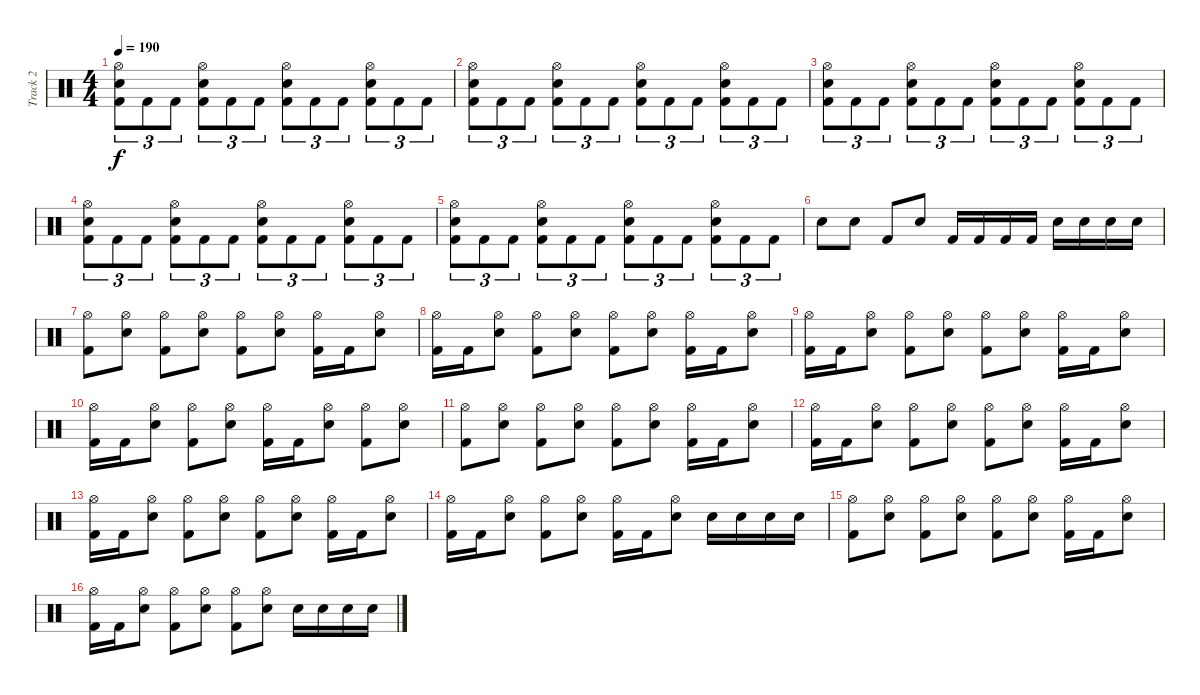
\track ("Track 2" "Track 2") {instrument percussion}
\staff {score}
\articulation defaults
\ts (4 4)
\tempo 190
\clef neutral
\ks c
("Hi-Hat (open)" "Snare (hit) 2" "Kick (hit) 2").8{tu (3 2) dy f} "Kick (hit) 2".8{tu (3 2)} "Kick (hit) 2".8{tu (3 2)} ("Hi-Hat (open)" "Snare (hit) 2" "Kick (hit) 2").8{tu (3 2)} "Kick (hit) 2".8{tu (3 2)} "Kick (hit) 2".8{tu (3 2)} ("Hi-Hat (open)" "Snare (hit) 2" "Kick (hit) 2").8{tu (3 2)} "Kick (hit) 2".8{tu (3 2)} "Kick (hit) 2".8{tu (3 2)} ("Hi-Hat (open)" "Snare (hit) 2" "Kick (hit) 2").8{tu (3 2)} "Kick (hit) 2".8{tu (3 2)} "Kick (hit) 2".8{tu (3 2)} |
("Hi-Hat (open)" "Snare (hit) 2" "Kick (hit) 2").8{tu (3 2)} "Kick (hit) 2".8{tu (3 2)} "Kick (hit) 2".8{tu (3 2)} ("Hi-Hat (open)" "Snare (hit) 2" "Kick (hit) 2").8{tu (3 2)} "Kick (hit) 2".8{tu (3 2)} "Kick (hit) 2".8{tu (3 2)} ("Hi-Hat (open)" "Snare (hit) 2" "Kick (hit) 2").8{tu (3 2)} "Kick (hit) 2".8{tu (3 2)} "Kick (hit) 2".8{tu (3 2)} ("Hi-Hat (open)" "Snare (hit) 2" "Kick (hit) 2").8{tu (3 2)} "Kick (hit) 2".8{tu (3 2)} "Kick (hit) 2".8{tu (3 2)} |
("Hi-Hat (open)" "Snare (hit) 2" "Kick (hit) 2").8{tu (3 2)} "Kick (hit) 2".8{tu (3 2)} "Kick (hit) 2".8{tu (3 2)} ("Hi-Hat (open)" "Snare (hit) 2" "Kick (hit) 2").8{tu (3 2)} "Kick (hit) 2".8{tu (3 2)} "Kick (hit) 2".8{tu (3 2)} ("Hi-Hat (open)" "Snare (hit) 2" "Kick (hit) 2").8{tu (3 2)} "Kick (hit) 2".8{tu (3 2)} "Kick (hit) 2".8{tu (3 2)} ("Hi-Hat (open)" "Snare (hit) 2" "Kick (hit) 2").8{tu (3 2)} "Kick (hit) 2".8{tu (3 2)} "Kick (hit) 2".8{tu (3 2)} |
("Hi-Hat (open)" "Snare (hit) 2" "Kick (hit) 2").8{tu (3 2)} "Kick (hit) 2".8{tu (3 2)} "Kick (hit) 2".8{tu (3 2)} ("Hi-Hat (open)" "Snare (hit) 2" "Kick (hit) 2").8{tu (3 2)} "Kick (hit) 2".8{tu (3 2)} "Kick (hit) 2".8{tu (3 2)} ("Hi-Hat (open)" "Snare (hit) 2" "Kick (hit) 2").8{tu (3 2)} "Kick (hit) 2".8{tu (3 2)} "Kick (hit) 2".8{tu (3 2)} ("Hi-Hat (open)" "Snare (hit) 2" "Kick (hit) 2").8{tu (3 2)} "Kick (hit) 2".8{tu (3 2)} "Kick (hit) 2".8{tu (3 2)} |
("Hi-Hat (open)" "Snare (hit) 2" "Kick (hit) 2").8{tu (3 2)} "Kick (hit) 2".8{tu (3 2)} "Kick (hit) 2".8{tu (3 2)} ("Hi-Hat (open)" "Snare (hit) 2" "Kick (hit) 2").8{tu (3 2)} "Kick (hit) 2".8{tu (3 2)} "Kick (hit) 2".8{tu (3 2)} ("Hi-Hat (open)" "Snare (hit) 2" "Kick (hit) 2").8{tu (3 2)} "Kick (hit) 2".8{tu (3 2)} "Kick (hit) 2".8{tu (3 2)} ("Hi-Hat (open)" "Snare (hit) 2" "Kick (hit) 2").8{tu (3 2)} "Kick (hit) 2".8{tu (3 2)} "Kick (hit) 2".8{tu (3 2)} |
"Snare (hit) 2".8 "Snare (hit) 2".8 "Kick (hit) 2".8 "Snare (hit) 2".8 "Kick (hit) 2".16 "Kick (hit) 2".16 "Kick (hit) 2".16 "Kick (hit) 2".16 "Snare (hit) 2".16 "Snare (hit) 2".16 "Snare (hit) 2".16 "Snare (hit) 2".16 |
("Hi-Hat (open)" "Kick (hit) 2").8 ("Hi-Hat (open)" "Snare (hit) 2").8 ("Hi-Hat (open)" "Kick (hit) 2").8 ("Hi-Hat (open)" "Snare (hit) 2").8 ("Hi-Hat (open)" "Kick (hit) 2").8 ("Hi-Hat (open)" "Snare (hit) 2").8 ("Hi-Hat (open)" "Kick (hit) 2").16 "Kick (hit) 2".16 ("Hi-Hat (open)" "Snare (hit) 2").8 |
("Hi-Hat (open)" "Kick (hit) 2").16 "Kick (hit) 2".16 ("Hi-Hat (open)" "Snare (hit) 2").8 ("Hi-Hat (open)" "Kick (hit) 2").8 ("Hi-Hat (open)" "Snare (hit) 2").8 ("Hi-Hat (open)" "Kick (hit) 2").8 ("Hi-Hat (open)" "Snare (hit) 2").8 ("Hi-Hat (open)" "Kick (hit) 2").16 "Kick (hit) 2".16 ("Hi-Hat (open)" "Snare (hit) 2").8 |
("Hi-Hat (open)" "Kick (hit) 2").16 "Kick (hit) 2".16 ("Hi-Hat (open)" "Snare (hit) 2").8 ("Hi-Hat (open)" "Kick (hit) 2").8 ("Hi-Hat (open)" "Snare (hit) 2").8 ("Hi-Hat (open)" "Kick (hit) 2").8 ("Hi-Hat (open)" "Snare (hit) 2").8 ("Hi-Hat (open)" "Kick (hit) 2").16 "Kick (hit) 2".16 ("Hi-Hat (open)" "Snare (hit) 2").8 |
("Hi-Hat (open)" "Kick (hit) 2").16 "Kick (hit) 2".16 ("Hi-Hat (open)" "Snare (hit) 2").8 ("Hi-Hat (open)" "Kick (hit) 2").8 ("Hi-Hat (open)" "Snare (hit) 2").8 ("Hi-Hat (open)" "Kick (hit) 2").16 "Kick (hit) 2".16 ("Hi-Hat (open)" "Snare (hit) 2").8 ("Hi-Hat (open)" "Kick (hit) 2").8 ("Hi-Hat (open)" "Snare (hit) 2").8 |
("Hi-Hat (open)" "Kick (hit) 2").8 ("Hi-Hat (open)" "Snare (hit) 2").8 ("Hi-Hat (open)" "Kick (hit) 2").8 ("Hi-Hat (open)" "Snare (hit) 2").8 ("Hi-Hat (open)" "Kick (hit) 2").8 ("Hi-Hat (open)" "Snare (hit) 2").8 ("Hi-Hat (open)" "Kick (hit) 2").16 "Kick (hit) 2".16 ("Hi-Hat (open)" "Snare (hit) 2").8 |
("Hi-Hat (open)" "Kick (hit) 2").16 "Kick (hit) 2".16 ("Hi-Hat (open)" "Snare (hit) 2").8 ("Hi-Hat (open)" "Kick (hit) 2").8 ("Hi-Hat (open)" "Snare (hit) 2").8 ("Hi-Hat (open)" "Kick (hit) 2").8 ("Hi-Hat (open)" "Snare (hit) 2").8 ("Hi-Hat (open)" "Kick (hit) 2").16 "Kick (hit) 2".16 ("Hi-Hat (open)" "Snare (hit) 2").8 |
("Hi-Hat (open)" "Kick (hit) 2").16 "Kick (hit) 2".16 ("Hi-Hat (open)" "Snare (hit) 2").8 ("Hi-Hat (open)" "Kick (hit) 2").8 ("Hi-Hat (open)" "Snare (hit) 2").8 ("Hi-Hat (open)" "Kick (hit) 2").8 ("Hi-Hat (open)" "Snare (hit) 2").8 ("Hi-Hat (open)" "Kick (hit) 2").16 "Kick (hit) 2".16 ("Hi-Hat (open)" "Snare (hit) 2").8 |
("Hi-Hat (open)" "Kick (hit) 2").16 "Kick (hit) 2".16 ("Hi-Hat (open)" "Snare (hit) 2").8 ("Hi-Hat (open)" "Kick (hit) 2").8 ("Hi-Hat (open)" "Snare (hit) 2").8 ("Hi-Hat (open)" "Kick (hit) 2").16 "Kick (hit) 2".16 ("Hi-Hat (open)" "Snare (hit) 2").8 "Snare (hit) 2".16 "Snare (hit) 2".16 "Snare (hit) 2".16 "Snare (hit) 2".16 |
("Hi-Hat (open)" "Kick (hit) 2").8 ("Hi-Hat (open)" "Snare (hit) 2").8 ("Hi-Hat (open)" "Kick (hit) 2").8 ("Hi-Hat (open)" "Snare (hit) 2").8 ("Hi-Hat (open)" "Kick (hit) 2").8 ("Hi-Hat (open)" "Snare (hit) 2").8 ("Hi-Hat (open)" "Kick (hit) 2").16 "Kick (hit) 2".16 ("Hi-Hat (open)" "Snare (hit) 2").8 |
("Hi-Hat (open)" "Kick (hit) 2").16 "Kick (hit) 2".16 ("Hi-Hat (open)" "Snare (hit) 2").8 ("Hi-Hat (open)" "Kick (hit) 2").8 ("Hi-Hat (open)" "Snare (hit) 2").8 ("Hi-Hat (open)" "Kick (hit) 2").8 ("Hi-Hat (open)" "Snare (hit) 2").8 "Snare (hit) 2".16 "Snare (hit) 2".16 "Snare (hit) 2".16 "Snare (hit) 2".16
